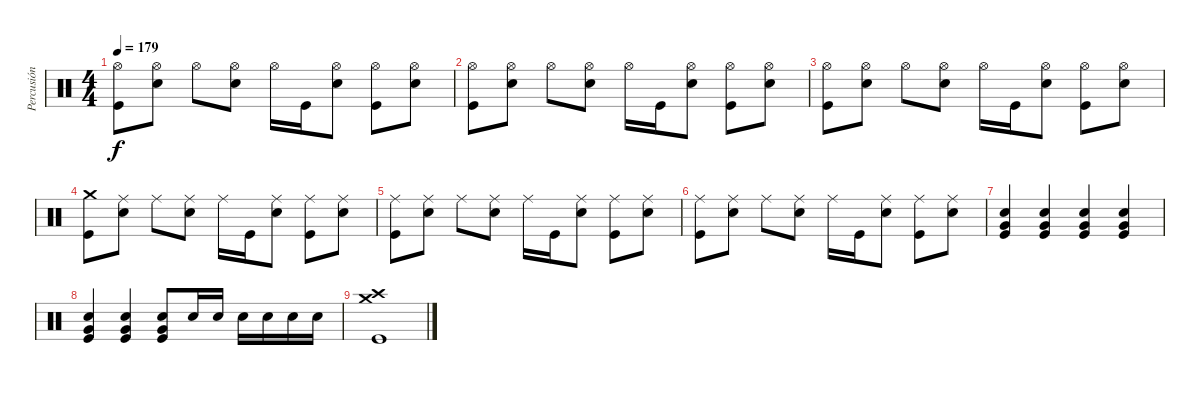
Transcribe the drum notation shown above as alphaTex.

\track ("Percusión" "Percusión") {instrument percussion}
\staff {score}
\articulation defaults
\ts (4 4)
\tempo 179
\clef neutral
\ks c
("Hi-Hat (open)" "Kick (hit)").8{dy f} ("Hi-Hat (open)" "Snare (hit) 2").8 "Hi-Hat (open)".8 ("Hi-Hat (open)" "Snare (hit) 2").8 "Hi-Hat (open)".16 "Kick (hit)".16 ("Hi-Hat (open)" "Snare (hit) 2").8 ("Hi-Hat (open)" "Kick (hit)").8 ("Hi-Hat (open)" "Snare (hit) 2").8 |
("Hi-Hat (open)" "Kick (hit)").8 ("Hi-Hat (open)" "Snare (hit) 2").8 "Hi-Hat (open)".8 ("Hi-Hat (open)" "Snare (hit) 2").8 "Hi-Hat (open)".16 "Kick (hit)".16 ("Hi-Hat (open)" "Snare (hit) 2").8 ("Hi-Hat (open)" "Kick (hit)").8 ("Hi-Hat (open)" "Snare (hit) 2").8 |
("Hi-Hat (open)" "Kick (hit)").8 ("Hi-Hat (open)" "Snare (hit) 2").8 "Hi-Hat (open)".8 ("Hi-Hat (open)" "Snare (hit) 2").8 "Hi-Hat (open)".16 "Kick (hit)".16 ("Hi-Hat (open)" "Snare (hit) 2").8 ("Hi-Hat (open)" "Kick (hit)").8 ("Hi-Hat (open)" "Snare (hit) 2").8 |
("Crash medium (hit)" "Kick (hit)").8 ("Ride (middle)" "Snare (hit) 2").8 "Ride (middle)".8 ("Ride (middle)" "Snare (hit) 2").8 "Ride (middle)".16 "Kick (hit)".16 ("Ride (middle)" "Snare (hit) 2").8 ("Ride (middle)" "Kick (hit)").8 ("Ride (middle)" "Snare (hit) 2").8 |
("Ride (middle)" "Kick (hit)").8 ("Ride (middle)" "Snare (hit) 2").8 "Ride (middle)".8 ("Ride (middle)" "Snare (hit) 2").8 "Ride (middle)".16 "Kick (hit)".16 ("Ride (middle)" "Snare (hit) 2").8 ("Ride (middle)" "Kick (hit)").8 ("Ride (middle)" "Snare (hit) 2").8 |
("Ride (middle)" "Kick (hit)").8 ("Ride (middle)" "Snare (hit) 2").8 "Ride (middle)".8 ("Ride (middle)" "Snare (hit) 2").8 "Ride (middle)".16 "Kick (hit)".16 ("Ride (middle)" "Snare (hit) 2").8 ("Ride (middle)" "Kick (hit)").8 ("Ride (middle)" "Snare (hit) 2").8 |
("Very Low Tom (hit)" "Snare (hit) 2" "Kick (hit)").4 ("Very Low Tom (hit)" "Snare (hit) 2" "Kick (hit)").4 ("Very Low Tom (hit)" "Snare (hit) 2" "Kick (hit)").4 ("Very Low Tom (hit)" "Snare (hit) 2" "Kick (hit)").4 |
("Very Low Tom (hit)" "Snare (hit) 2" "Kick (hit)").4 ("Very Low Tom (hit)" "Snare (hit) 2" "Kick (hit)").4 ("Very Low Tom (hit)" "Snare (hit) 2" "Kick (hit)").8 "Snare (hit) 2".16 "Snare (hit) 2".16 "Snare (hit) 2".16 "Snare (hit) 2".16 "Snare (hit) 2".16 "Snare (hit) 2".16 |
("Crash high (hit)" "Crash medium (hit)" "Kick (hit)").1
